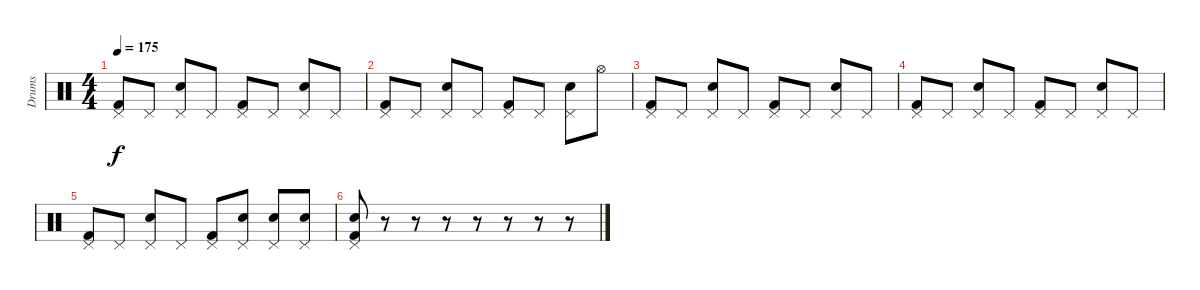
\track ("Drums" "Drums") {instrument percussion}
\staff {score}
\articulation defaults
\ts (4 4)
\tempo 175
\clef neutral
\ks c
("Pedal Hi-Hat (hit)" "Kick (hit) 2").8{dy f} "Pedal Hi-Hat (hit)".8 ("Pedal Hi-Hat (hit)" "Snare (hit) 2").8 "Pedal Hi-Hat (hit)".8 ("Pedal Hi-Hat (hit)" "Kick (hit) 2").8 "Pedal Hi-Hat (hit)".8 ("Pedal Hi-Hat (hit)" "Snare (hit) 2").8 "Pedal Hi-Hat (hit)".8 |
("Pedal Hi-Hat (hit)" "Kick (hit) 2").8 "Pedal Hi-Hat (hit)".8 ("Pedal Hi-Hat (hit)" "Snare (hit) 2").8 "Pedal Hi-Hat (hit)".8 ("Pedal Hi-Hat (hit)" "Kick (hit) 2").8 "Pedal Hi-Hat (hit)".8 ("Pedal Hi-Hat (hit)" "Snare (hit) 2").8 "Hi-Hat (open)".8 |
("Pedal Hi-Hat (hit)" "Kick (hit) 2").8 "Pedal Hi-Hat (hit)".8 ("Pedal Hi-Hat (hit)" "Snare (hit) 2").8 "Pedal Hi-Hat (hit)".8 ("Pedal Hi-Hat (hit)" "Kick (hit) 2").8 "Pedal Hi-Hat (hit)".8 ("Pedal Hi-Hat (hit)" "Snare (hit) 2").8 "Pedal Hi-Hat (hit)".8 |
("Pedal Hi-Hat (hit)" "Kick (hit) 2").8 "Pedal Hi-Hat (hit)".8 ("Pedal Hi-Hat (hit)" "Snare (hit) 2").8 "Pedal Hi-Hat (hit)".8 ("Pedal Hi-Hat (hit)" "Kick (hit) 2").8 "Pedal Hi-Hat (hit)".8 ("Pedal Hi-Hat (hit)" "Snare (hit) 2").8 "Pedal Hi-Hat (hit)".8 |
("Pedal Hi-Hat (hit)" "Kick (hit) 2").8 "Pedal Hi-Hat (hit)".8 ("Pedal Hi-Hat (hit)" "Snare (hit) 2").8 "Pedal Hi-Hat (hit)".8 ("Pedal Hi-Hat (hit)" "Kick (hit) 2").8 ("Pedal Hi-Hat (hit)" "Snare (hit) 2").8 ("Pedal Hi-Hat (hit)" "Snare (hit) 2").8 ("Pedal Hi-Hat (hit)" "Snare (hit) 2").8 |
("Pedal Hi-Hat (hit)" "Kick (hit) 2" "Snare (hit) 2").8 r.8 r.8 r.8 r.8 r.8 r.8 r.8
